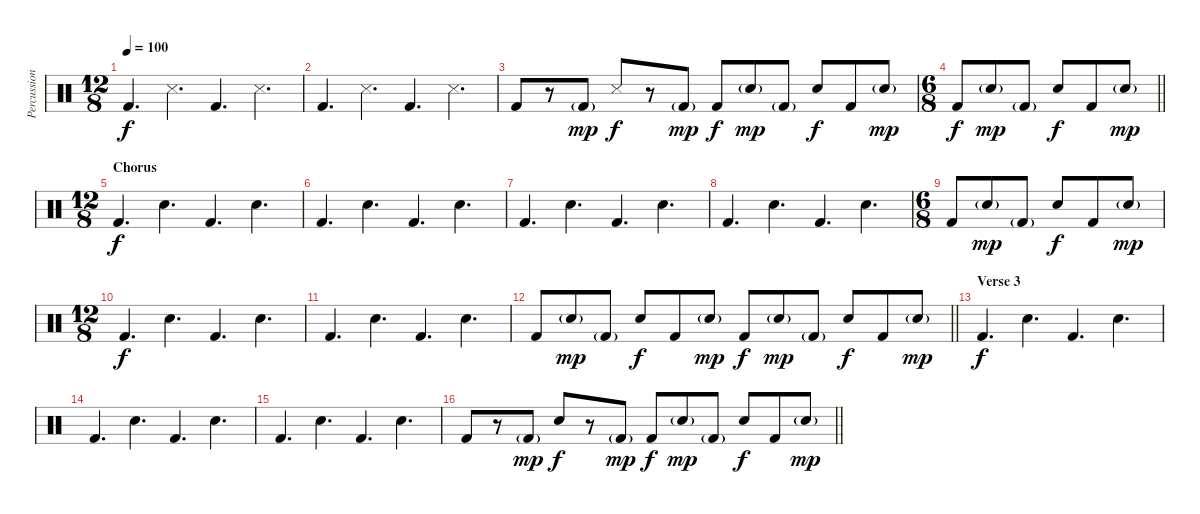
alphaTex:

\track ("Percussion" "Percussion") {instrument percussion}
\staff {score}
\articulation defaults
\ts (12 8)
\tempo 100
\clef neutral
\ks c "Kick (hit) 2".4{d dy f} "Snare (side stick) 3".4{d} "Kick (hit) 2".4{d} "Snare (side stick) 3".4{d}
|
"Kick (hit) 2".4{d} "Snare (side stick) 3".4{d} "Kick (hit) 2".4{d} "Snare (side stick) 3".4{d} |
"Kick (hit) 2".8 r.8 "Kick (hit) 2"{g}.8{dy mp} "Snare (side stick) 3".8{dy f} r.8 "Kick (hit) 2"{g}.8{dy mp} "Kick (hit) 2".8{dy f} "Snare (hit) 2"{g}.8{dy mp} "Kick (hit) 2"{g}.8 "Snare (hit) 2".8{dy f} "Kick (hit) 2".8 "Snare (hit) 2"{g}.8{dy mp} |
\ts (6 8)
\barLineRight lightlight "Kick (hit) 2".8{dy f} "Snare (hit) 2"{g}.8{dy mp} "Kick (hit) 2"{g}.8 "Snare (hit) 2".8{dy f} "Kick (hit) 2".8 "Snare (hit) 2"{g}.8{dy mp}
|
\ts (12 8)
\section ("" "Chorus")
"Kick (hit) 2".4{d dy f} "Snare (hit) 2".4{d} "Kick (hit) 2".4{d} "Snare (hit) 2".4{d} |
"Kick (hit) 2".4{d} "Snare (hit) 2".4{d} "Kick (hit) 2".4{d} "Snare (hit) 2".4{d} |
"Kick (hit) 2".4{d} "Snare (hit) 2".4{d} "Kick (hit) 2".4{d} "Snare (hit) 2".4{d} |
"Kick (hit) 2".4{d} "Snare (hit) 2".4{d} "Kick (hit) 2".4{d} "Snare (hit) 2".4{d} |
\ts (6 8)
"Kick (hit) 2".8 "Snare (hit) 2"{g}.8{dy mp} "Kick (hit) 2"{g}.8 "Snare (hit) 2".8{dy f} "Kick (hit) 2".8 "Snare (hit) 2"{g}.8{dy mp} |
\ts (12 8)
"Kick (hit) 2".4{d dy f} "Snare (hit) 2".4{d} "Kick (hit) 2".4{d} "Snare (hit) 2".4{d} |
"Kick (hit) 2".4{d} "Snare (hit) 2".4{d} "Kick (hit) 2".4{d} "Snare (hit) 2".4{d} |
\barLineRight lightlight "Kick (hit) 2".8 "Snare (hit) 2"{g}.8{dy mp} "Kick (hit) 2"{g}.8 "Snare (hit) 2".8{dy f} "Kick (hit) 2".8 "Snare (hit) 2"{g}.8{dy mp} "Kick (hit) 2".8{dy f} "Snare (hit) 2"{g}.8{dy mp} "Kick (hit) 2"{g}.8 "Snare (hit) 2".8{dy f} "Kick (hit) 2".8 "Snare (hit) 2"{g}.8{dy mp}
|
\section ("" "Verse 3")
"Kick (hit) 2".4{d dy f} "Snare (hit) 2".4{d} "Kick (hit) 2".4{d} "Snare (hit) 2".4{d} |
"Kick (hit) 2".4{d} "Snare (hit) 2".4{d} "Kick (hit) 2".4{d} "Snare (hit) 2".4{d} |
"Kick (hit) 2".4{d} "Snare (hit) 2".4{d} "Kick (hit) 2".4{d} "Snare (hit) 2".4{d} |
\barLineRight lightlight "Kick (hit) 2".8
r.8 "Kick (hit) 2"{g}.8{dy mp} "Snare (hit) 2".8{dy f} r.8 "Kick (hit) 2"{g}.8{dy mp} "Kick (hit) 2".8{dy f} "Snare (hit) 2"{g}.8{dy mp} "Kick (hit) 2"{g}.8 "Snare (hit) 2".8{dy f} "Kick (hit) 2".8 "Snare (hit) 2"{g}.8{dy mp}
